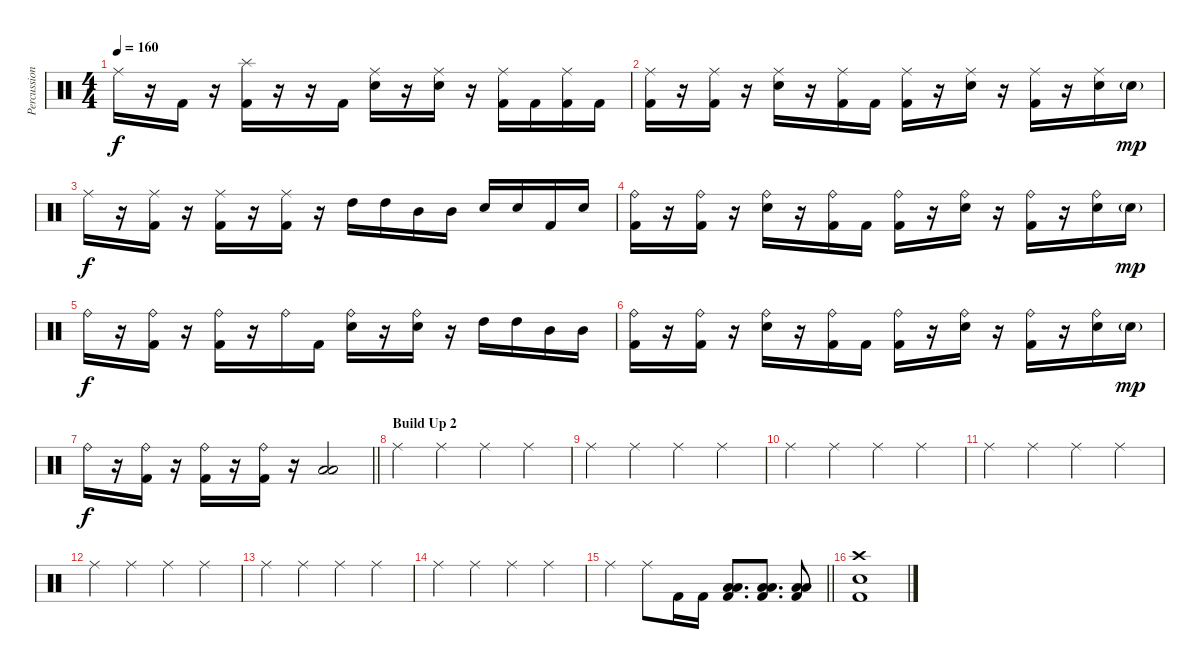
\track ("Percussion" "Percussion") {instrument percussion}
\staff {score}
\articulation defaults
\ts (4 4)
\tempo 160
\clef neutral
\ks c "Ride (middle)".16{dy f}
r.16 "Kick (hit) 2".16 r.16 ("Splash (hit)" "Kick (hit) 2").16 r.16 r.16 "Kick (hit) 2".16 ("Ride (middle)" "Electric Snare (hit)").16 r.16 ("Ride (middle)" "Electric Snare (hit)").16 r.16 ("Ride (middle)" "Kick (hit) 2").16 "Kick (hit) 2".16 ("Ride (middle)" "Kick (hit) 2").16 "Kick (hit) 2".16 |
("Ride (middle)" "Kick (hit) 2").16 r.16 ("Ride (middle)" "Kick (hit) 2").16 r.16 ("Ride (middle)" "Electric Snare (hit)").16 r.16 ("Ride (middle)" "Kick (hit) 2").16 "Kick (hit) 2".16 ("Ride (middle)" "Kick (hit) 2").16 r.16 ("Ride (middle)" "Electric Snare (hit)").16 r.16 ("Ride (middle)" "Kick (hit) 2").16 r.16 ("Ride (middle)" "Electric Snare (hit)").16 "Electric Snare (hit)"{g}.16{dy mp} |
"Ride (middle)".16{dy f} r.16 ("Ride (middle)" "Kick (hit) 2").16 r.16 ("Ride (middle)" "Kick (hit) 2").16 r.16 ("Ride (middle)" "Kick (hit) 2").16 r.16 "High Tom (hit)".16 "High Tom (hit)".16 "Mid Tom (hit)".16 "Mid Tom (hit)".16 "Electric Snare (hit)".16 "Electric Snare (hit)".16 "Kick (hit) 2".16 "Electric Snare (hit)".16 |
("Ride (bell)" "Kick (hit) 2").16 r.16 ("Ride (bell)" "Kick (hit) 2").16 r.16 ("Ride (bell)" "Electric Snare (hit)").16 r.16 ("Ride (bell)" "Kick (hit) 2").16 "Kick (hit) 2".16 ("Ride (bell)" "Kick (hit) 2").16 r.16 ("Ride (bell)" "Electric Snare (hit)").16 r.16 ("Ride (bell)" "Kick (hit) 2").16 r.16 ("Ride (bell)" "Electric Snare (hit)").16 "Electric Snare (hit)"{g}.16{dy mp} |
"Ride (bell)".16{dy f} r.16 ("Ride (bell)" "Kick (hit) 2").16 r.16 ("Ride (bell)" "Kick (hit) 2").16 r.16 "Ride (bell)".16 "Kick (hit) 2".16 ("Ride (bell)" "Electric Snare (hit)").16 r.16 ("Ride (bell)" "Electric Snare (hit)").16 r.16 "High Tom (hit)".16 "High Tom (hit)".16 "Mid Tom (hit)".16 "Mid Tom (hit)".16 |
("Ride (bell)" "Kick (hit) 2").16 r.16 ("Ride (bell)" "Kick (hit) 2").16 r.16 ("Ride (bell)" "Electric Snare (hit)").16 r.16 ("Ride (bell)" "Kick (hit) 2").16 "Kick (hit) 2".16 ("Ride (bell)" "Kick (hit) 2").16 r.16 ("Ride (bell)" "Electric Snare (hit)").16 r.16 ("Ride (bell)" "Kick (hit) 2").16 r.16 ("Ride (bell)" "Electric Snare (hit)").16 "Electric Snare (hit)"{g}.16{dy mp} |
\barLineRight lightlight "Ride (bell)".16{dy f}
r.16 ("Ride (bell)" "Kick (hit) 2").16 r.16 ("Ride (bell)" "Kick (hit) 2").16 r.16 ("Ride (bell)" "Kick (hit) 2").16 r.16 ("Low Floor Tom (hit)" "Low Tom (hit)").2 |
\section ("" "Build Up 2")
"Ride (middle)".4 "Ride (middle)".4 "Ride (middle)".4 "Ride (middle)".4 |
"Ride (middle)".4 "Ride (middle)".4 "Ride (middle)".4 "Ride (middle)".4 |
"Ride (middle)".4 "Ride (middle)".4 "Ride (middle)".4 "Ride (middle)".4 |
"Ride (middle)".4 "Ride (middle)".4 "Ride (middle)".4 "Ride (middle)".4 |
"Ride (middle)".4 "Ride (middle)".4 "Ride (middle)".4 "Ride (middle)".4 |
"Ride (middle)".4 "Ride (middle)".4 "Ride (middle)".4 "Ride (middle)".4 |
"Ride (middle)".4 "Ride (middle)".4 "Ride (middle)".4 "Ride (middle)".4 |
\barLineRight lightlight "Ride (middle)".4 "Ride (middle)".8 "Kick (hit) 2".16{volume 13} "Kick (hit) 2".16
("Low Tom (hit)" "Low Floor Tom (hit)" "Kick (hit) 2").8{d} ("Low Tom (hit)" "Low Floor Tom (hit)" "Kick (hit) 2").8{d} ("Low Tom (hit)" "Low Floor Tom (hit)" "Kick (hit) 2").8 |
("Crash high (hit)" "Electric Snare (hit)" "Kick (hit) 2").1
